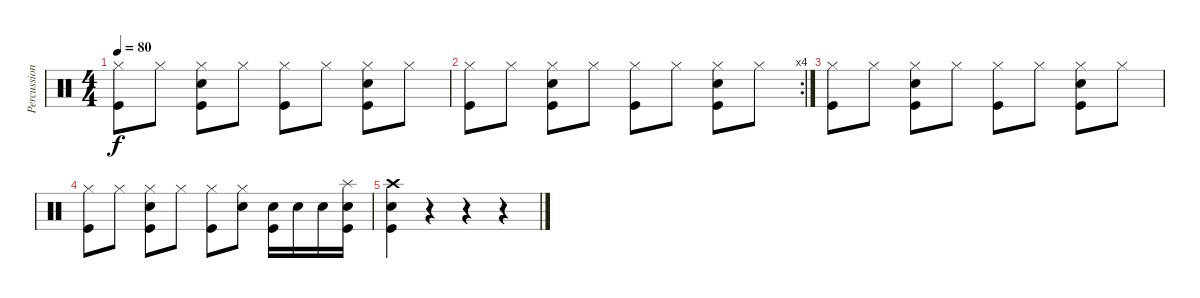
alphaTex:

\track ("Percussion" "Percussion") {instrument percussion}
\staff {score}
\articulation defaults
\ts (4 4)
\tempo 80
\clef neutral
\ks c
("Hi-Hat (closed)" "Kick (hit)").8{dy f} "Hi-Hat (closed)".8 ("Hi-Hat (closed)" "Snare (hit) 2" "Kick (hit)").8 "Hi-Hat (closed)".8 ("Hi-Hat (closed)" "Kick (hit)").8 "Hi-Hat (closed)".8 ("Hi-Hat (closed)" "Snare (hit) 2" "Kick (hit)").8 "Hi-Hat (closed)".8 |
\rc 4
("Hi-Hat (closed)" "Kick (hit)").8 "Hi-Hat (closed)".8 ("Hi-Hat (closed)" "Snare (hit) 2" "Kick (hit)").8 "Hi-Hat (closed)".8 ("Hi-Hat (closed)" "Kick (hit)").8 "Hi-Hat (closed)".8 ("Hi-Hat (closed)" "Snare (hit) 2" "Kick (hit)").8 "Hi-Hat (closed)".8 |
("Hi-Hat (closed)" "Kick (hit)").8 "Hi-Hat (closed)".8 ("Hi-Hat (closed)" "Snare (hit) 2" "Kick (hit)").8 "Hi-Hat (closed)".8 ("Hi-Hat (closed)" "Kick (hit)").8 "Hi-Hat (closed)".8 ("Hi-Hat (closed)" "Snare (hit) 2" "Kick (hit)").8 "Hi-Hat (closed)".8 |
("Hi-Hat (closed)" "Kick (hit)").8 "Hi-Hat (closed)".8 ("Hi-Hat (closed)" "Snare (hit) 2" "Kick (hit)").8 "Hi-Hat (closed)".8 ("Hi-Hat (closed)" "Kick (hit)").8 ("Hi-Hat (closed)" "Snare (hit) 2").8 ("Snare (hit) 2" "Kick (hit)").16 "Snare (hit) 2".16 "Snare (hit) 2".16 ("Splash (hit)" "Snare (hit) 2" "Kick (hit)").16 |
("Crash high (hit)" "Snare (hit) 2" "Kick (hit)").4 r.4 r.4 r.4
